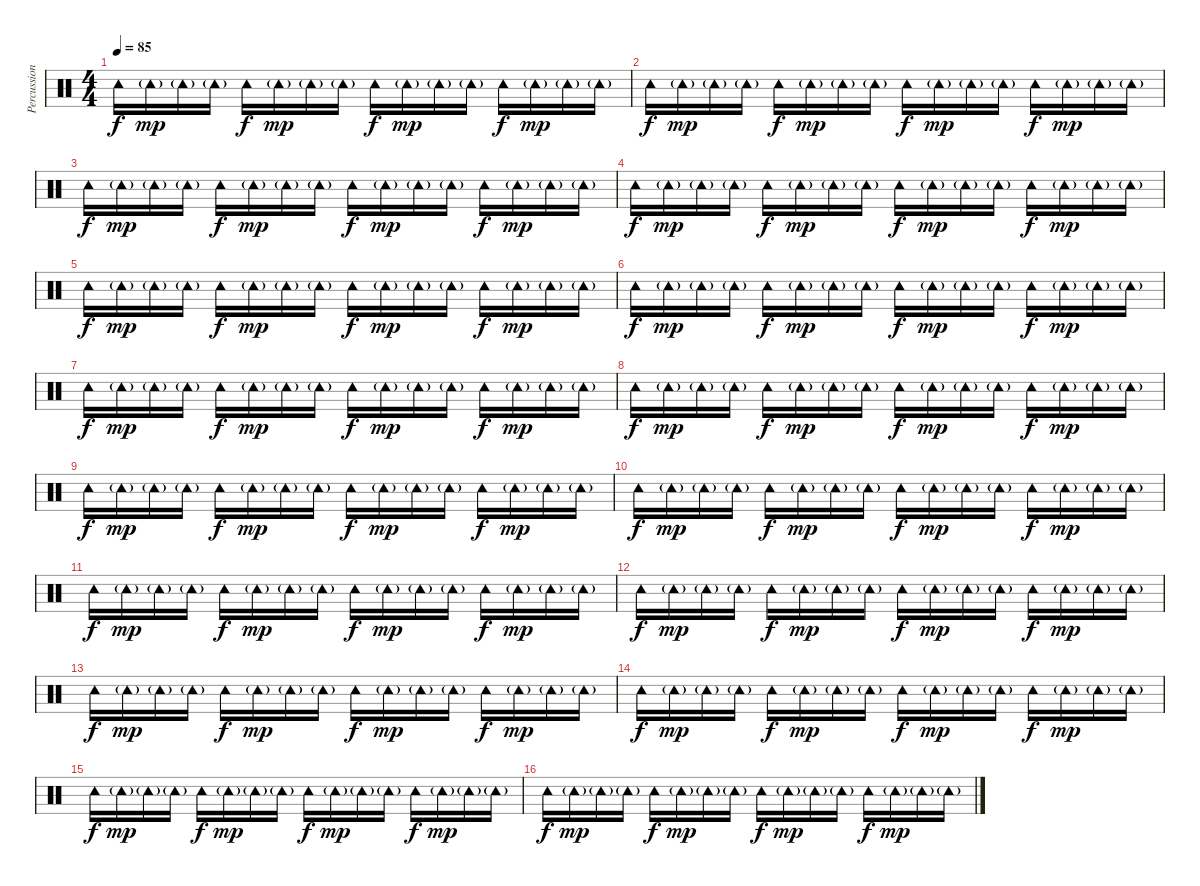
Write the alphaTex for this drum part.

\track ("Percussions" "Percussion") {instrument percussion}
\staff {score}
\articulation defaults
\ts (4 4)
\tempo 85
\clef neutral
\ks c "Tambourine (hit)".16{dy f} "Tambourine (hit)"{g}.16{dy mp} "Tambourine (hit)"{g}.16 "Tambourine (hit)"{g}.16 "Tambourine (hit)".16{dy f} "Tambourine (hit)"{g}.16{dy mp} "Tambourine (hit)"{g}.16 "Tambourine (hit)"{g}.16 "Tambourine (hit)".16{dy f} "Tambourine (hit)"{g}.16{dy mp} "Tambourine (hit)"{g}.16 "Tambourine (hit)"{g}.16 "Tambourine (hit)".16{dy f} "Tambourine (hit)"{g}.16{dy mp} "Tambourine (hit)"{g}.16 "Tambourine (hit)"{g}.16
|
"Tambourine (hit)".16{dy f} "Tambourine (hit)"{g}.16{dy mp} "Tambourine (hit)"{g}.16 "Tambourine (hit)"{g}.16 "Tambourine (hit)".16{dy f} "Tambourine (hit)"{g}.16{dy mp} "Tambourine (hit)"{g}.16 "Tambourine (hit)"{g}.16 "Tambourine (hit)".16{dy f} "Tambourine (hit)"{g}.16{dy mp} "Tambourine (hit)"{g}.16 "Tambourine (hit)"{g}.16 "Tambourine (hit)".16{dy f} "Tambourine (hit)"{g}.16{dy mp} "Tambourine (hit)"{g}.16 "Tambourine (hit)"{g}.16 |
"Tambourine (hit)".16{dy f} "Tambourine (hit)"{g}.16{dy mp} "Tambourine (hit)"{g}.16 "Tambourine (hit)"{g}.16 "Tambourine (hit)".16{dy f} "Tambourine (hit)"{g}.16{dy mp} "Tambourine (hit)"{g}.16 "Tambourine (hit)"{g}.16 "Tambourine (hit)".16{dy f} "Tambourine (hit)"{g}.16{dy mp} "Tambourine (hit)"{g}.16 "Tambourine (hit)"{g}.16 "Tambourine (hit)".16{dy f} "Tambourine (hit)"{g}.16{dy mp} "Tambourine (hit)"{g}.16 "Tambourine (hit)"{g}.16 |
"Tambourine (hit)".16{dy f} "Tambourine (hit)"{g}.16{dy mp} "Tambourine (hit)"{g}.16 "Tambourine (hit)"{g}.16 "Tambourine (hit)".16{dy f} "Tambourine (hit)"{g}.16{dy mp} "Tambourine (hit)"{g}.16 "Tambourine (hit)"{g}.16 "Tambourine (hit)".16{dy f} "Tambourine (hit)"{g}.16{dy mp} "Tambourine (hit)"{g}.16 "Tambourine (hit)"{g}.16 "Tambourine (hit)".16{dy f} "Tambourine (hit)"{g}.16{dy mp} "Tambourine (hit)"{g}.16 "Tambourine (hit)"{g}.16 |
"Tambourine (hit)".16{dy f} "Tambourine (hit)"{g}.16{dy mp} "Tambourine (hit)"{g}.16 "Tambourine (hit)"{g}.16 "Tambourine (hit)".16{dy f} "Tambourine (hit)"{g}.16{dy mp} "Tambourine (hit)"{g}.16 "Tambourine (hit)"{g}.16 "Tambourine (hit)".16{dy f} "Tambourine (hit)"{g}.16{dy mp} "Tambourine (hit)"{g}.16 "Tambourine (hit)"{g}.16 "Tambourine (hit)".16{dy f} "Tambourine (hit)"{g}.16{dy mp} "Tambourine (hit)"{g}.16 "Tambourine (hit)"{g}.16 |
"Tambourine (hit)".16{dy f} "Tambourine (hit)"{g}.16{dy mp} "Tambourine (hit)"{g}.16 "Tambourine (hit)"{g}.16 "Tambourine (hit)".16{dy f} "Tambourine (hit)"{g}.16{dy mp} "Tambourine (hit)"{g}.16 "Tambourine (hit)"{g}.16 "Tambourine (hit)".16{dy f} "Tambourine (hit)"{g}.16{dy mp} "Tambourine (hit)"{g}.16 "Tambourine (hit)"{g}.16 "Tambourine (hit)".16{dy f} "Tambourine (hit)"{g}.16{dy mp} "Tambourine (hit)"{g}.16 "Tambourine (hit)"{g}.16 |
"Tambourine (hit)".16{dy f} "Tambourine (hit)"{g}.16{dy mp} "Tambourine (hit)"{g}.16 "Tambourine (hit)"{g}.16 "Tambourine (hit)".16{dy f} "Tambourine (hit)"{g}.16{dy mp} "Tambourine (hit)"{g}.16 "Tambourine (hit)"{g}.16 "Tambourine (hit)".16{dy f} "Tambourine (hit)"{g}.16{dy mp} "Tambourine (hit)"{g}.16 "Tambourine (hit)"{g}.16 "Tambourine (hit)".16{dy f} "Tambourine (hit)"{g}.16{dy mp} "Tambourine (hit)"{g}.16 "Tambourine (hit)"{g}.16 |
"Tambourine (hit)".16{dy f} "Tambourine (hit)"{g}.16{dy mp} "Tambourine (hit)"{g}.16 "Tambourine (hit)"{g}.16 "Tambourine (hit)".16{dy f} "Tambourine (hit)"{g}.16{dy mp} "Tambourine (hit)"{g}.16 "Tambourine (hit)"{g}.16 "Tambourine (hit)".16{dy f} "Tambourine (hit)"{g}.16{dy mp} "Tambourine (hit)"{g}.16 "Tambourine (hit)"{g}.16 "Tambourine (hit)".16{dy f} "Tambourine (hit)"{g}.16{dy mp} "Tambourine (hit)"{g}.16 "Tambourine (hit)"{g}.16 |
"Tambourine (hit)".16{dy f} "Tambourine (hit)"{g}.16{dy mp} "Tambourine (hit)"{g}.16 "Tambourine (hit)"{g}.16 "Tambourine (hit)".16{dy f} "Tambourine (hit)"{g}.16{dy mp} "Tambourine (hit)"{g}.16 "Tambourine (hit)"{g}.16 "Tambourine (hit)".16{dy f} "Tambourine (hit)"{g}.16{dy mp} "Tambourine (hit)"{g}.16 "Tambourine (hit)"{g}.16 "Tambourine (hit)".16{dy f} "Tambourine (hit)"{g}.16{dy mp} "Tambourine (hit)"{g}.16 "Tambourine (hit)"{g}.16 |
"Tambourine (hit)".16{dy f} "Tambourine (hit)"{g}.16{dy mp} "Tambourine (hit)"{g}.16 "Tambourine (hit)"{g}.16 "Tambourine (hit)".16{dy f} "Tambourine (hit)"{g}.16{dy mp} "Tambourine (hit)"{g}.16 "Tambourine (hit)"{g}.16 "Tambourine (hit)".16{dy f} "Tambourine (hit)"{g}.16{dy mp} "Tambourine (hit)"{g}.16 "Tambourine (hit)"{g}.16 "Tambourine (hit)".16{dy f} "Tambourine (hit)"{g}.16{dy mp} "Tambourine (hit)"{g}.16 "Tambourine (hit)"{g}.16 |
"Tambourine (hit)".16{dy f} "Tambourine (hit)"{g}.16{dy mp} "Tambourine (hit)"{g}.16 "Tambourine (hit)"{g}.16 "Tambourine (hit)".16{dy f} "Tambourine (hit)"{g}.16{dy mp} "Tambourine (hit)"{g}.16 "Tambourine (hit)"{g}.16 "Tambourine (hit)".16{dy f} "Tambourine (hit)"{g}.16{dy mp} "Tambourine (hit)"{g}.16 "Tambourine (hit)"{g}.16 "Tambourine (hit)".16{dy f} "Tambourine (hit)"{g}.16{dy mp} "Tambourine (hit)"{g}.16 "Tambourine (hit)"{g}.16 |
"Tambourine (hit)".16{dy f} "Tambourine (hit)"{g}.16{dy mp} "Tambourine (hit)"{g}.16 "Tambourine (hit)"{g}.16 "Tambourine (hit)".16{dy f} "Tambourine (hit)"{g}.16{dy mp} "Tambourine (hit)"{g}.16 "Tambourine (hit)"{g}.16 "Tambourine (hit)".16{dy f} "Tambourine (hit)"{g}.16{dy mp} "Tambourine (hit)"{g}.16 "Tambourine (hit)"{g}.16 "Tambourine (hit)".16{dy f} "Tambourine (hit)"{g}.16{dy mp} "Tambourine (hit)"{g}.16 "Tambourine (hit)"{g}.16 |
"Tambourine (hit)".16{dy f} "Tambourine (hit)"{g}.16{dy mp} "Tambourine (hit)"{g}.16 "Tambourine (hit)"{g}.16 "Tambourine (hit)".16{dy f} "Tambourine (hit)"{g}.16{dy mp} "Tambourine (hit)"{g}.16 "Tambourine (hit)"{g}.16 "Tambourine (hit)".16{dy f} "Tambourine (hit)"{g}.16{dy mp} "Tambourine (hit)"{g}.16 "Tambourine (hit)"{g}.16 "Tambourine (hit)".16{dy f} "Tambourine (hit)"{g}.16{dy mp} "Tambourine (hit)"{g}.16 "Tambourine (hit)"{g}.16 |
"Tambourine (hit)".16{dy f} "Tambourine (hit)"{g}.16{dy mp} "Tambourine (hit)"{g}.16 "Tambourine (hit)"{g}.16 "Tambourine (hit)".16{dy f} "Tambourine (hit)"{g}.16{dy mp} "Tambourine (hit)"{g}.16 "Tambourine (hit)"{g}.16 "Tambourine (hit)".16{dy f} "Tambourine (hit)"{g}.16{dy mp} "Tambourine (hit)"{g}.16 "Tambourine (hit)"{g}.16 "Tambourine (hit)".16{dy f} "Tambourine (hit)"{g}.16{dy mp} "Tambourine (hit)"{g}.16 "Tambourine (hit)"{g}.16 |
"Tambourine (hit)".16{dy f} "Tambourine (hit)"{g}.16{dy mp} "Tambourine (hit)"{g}.16 "Tambourine (hit)"{g}.16 "Tambourine (hit)".16{dy f} "Tambourine (hit)"{g}.16{dy mp} "Tambourine (hit)"{g}.16 "Tambourine (hit)"{g}.16 "Tambourine (hit)".16{dy f} "Tambourine (hit)"{g}.16{dy mp} "Tambourine (hit)"{g}.16 "Tambourine (hit)"{g}.16 "Tambourine (hit)".16{dy f} "Tambourine (hit)"{g}.16{dy mp} "Tambourine (hit)"{g}.16 "Tambourine (hit)"{g}.16 |
"Tambourine (hit)".16{dy f} "Tambourine (hit)"{g}.16{dy mp} "Tambourine (hit)"{g}.16 "Tambourine (hit)"{g}.16 "Tambourine (hit)".16{dy f} "Tambourine (hit)"{g}.16{dy mp} "Tambourine (hit)"{g}.16 "Tambourine (hit)"{g}.16 "Tambourine (hit)".16{dy f} "Tambourine (hit)"{g}.16{dy mp} "Tambourine (hit)"{g}.16 "Tambourine (hit)"{g}.16 "Tambourine (hit)".16{dy f} "Tambourine (hit)"{g}.16{dy mp} "Tambourine (hit)"{g}.16 "Tambourine (hit)"{g}.16
